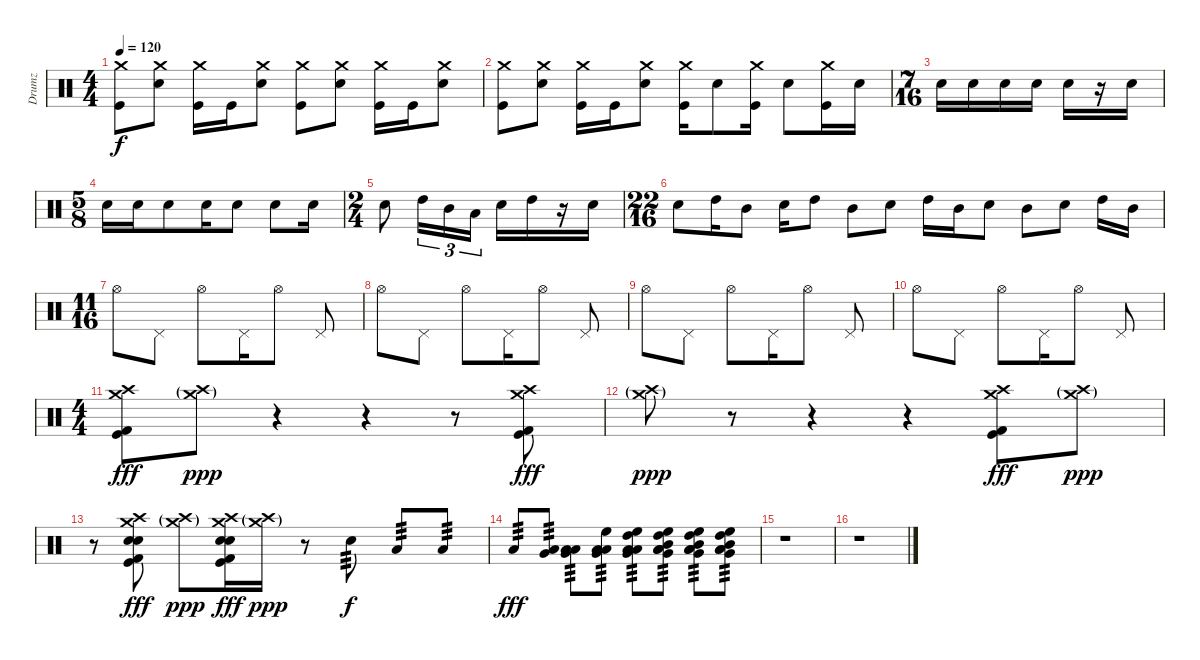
\track ("Drumz" "Drumz") {instrument percussion}
\staff {score}
\articulation defaults
\ts (4 4)
\tempo 120
\clef neutral
\ks c
("Crash medium (hit)" "Kick (hit)").8{dy f} ("Crash medium (hit)" "Electric Snare (hit)").8 ("Crash medium (hit)" "Kick (hit)").16 "Kick (hit)".16 ("Crash medium (hit)" "Electric Snare (hit)").8 ("Crash medium (hit)" "Kick (hit)").8 ("Crash medium (hit)" "Electric Snare (hit)").8 ("Crash medium (hit)" "Kick (hit)").16 "Kick (hit)".16 ("Crash medium (hit)" "Electric Snare (hit)").8 |
("Crash medium (hit)" "Kick (hit)").8 ("Crash medium (hit)" "Electric Snare (hit)").8 ("Crash medium (hit)" "Kick (hit)").16 "Kick (hit)".16 ("Crash medium (hit)" "Electric Snare (hit)").8 ("Crash medium (hit)" "Kick (hit)").16 "Electric Snare (hit)".8 ("Crash medium (hit)" "Kick (hit)").16 "Electric Snare (hit)".8 ("Crash medium (hit)" "Kick (hit)").16 "Electric Snare (hit)".16 |
\ts (7 16)
"Electric Snare (hit)".16 "Electric Snare (hit)".16 "Electric Snare (hit)".16 "Electric Snare (hit)".16 "Electric Snare (hit)".16 r.16 "Electric Snare (hit)".16 |
\ts (5 8)
"Electric Snare (hit)".16 "Electric Snare (hit)".16 "Electric Snare (hit)".8 "Electric Snare (hit)".16 "Electric Snare (hit)".8 "Electric Snare (hit)".8 "Electric Snare (hit)".16 |
\ts (2 4)
"Electric Snare (hit)".8 "High Tom (hit)".16{tu (3 2)} "Mid Tom (hit)".16{tu (3 2)} "Low Tom (hit)".16{tu (3 2)} "Electric Snare (hit)".16 "High Tom (hit)".16 r.16 "Electric Snare (hit)".16 |
\ts (22 16)
"Electric Snare (hit)".8 "High Tom (hit)".16 "Mid Tom (hit)".8 "Electric Snare (hit)".16 "High Tom (hit)".8 "Mid Tom (hit)".8 "Electric Snare (hit)".8 "High Tom (hit)".16 "Mid Tom (hit)".16 "Electric Snare (hit)".8 "Mid Tom (hit)".8 "Electric Snare (hit)".8 "High Tom (hit)".16 "Mid Tom (hit)".16 |
\ts (11 16)
"Hi-Hat (open)".8 "Pedal Hi-Hat (hit)".8 "Hi-Hat (open)".8 "Pedal Hi-Hat (hit)".16 "Hi-Hat (open)".8 "Pedal Hi-Hat (hit)".8 |
"Hi-Hat (open)".8 "Pedal Hi-Hat (hit)".8 "Hi-Hat (open)".8 "Pedal Hi-Hat (hit)".16 "Hi-Hat (open)".8 "Pedal Hi-Hat (hit)".8 |
"Hi-Hat (open)".8 "Pedal Hi-Hat (hit)".8 "Hi-Hat (open)".8 "Pedal Hi-Hat (hit)".16 "Hi-Hat (open)".8 "Pedal Hi-Hat (hit)".8 |
"Hi-Hat (open)".8 "Pedal Hi-Hat (hit)".8 "Hi-Hat (open)".8 "Pedal Hi-Hat (hit)".16 "Hi-Hat (open)".8 "Pedal Hi-Hat (hit)".8 |
\ts (4 4)
("Crash medium (hit)" "Crash high (hit)" "Kick (hit) 2" "Kick (hit)").8{dy fff} ("Crash medium (hit)"{g} "Crash high (hit)"{g}).8{dy ppp} r.4 r.4 r.8 ("Crash medium (hit)" "Crash high (hit)" "Kick (hit) 2" "Kick (hit)").8{dy fff} |
("Crash medium (hit)"{g} "Crash high (hit)"{g}).8{dy ppp} r.8 r.4 r.4 ("Crash medium (hit)" "Crash high (hit)" "Kick (hit) 2" "Kick (hit)").8{dy fff} ("Crash medium (hit)"{g} "Crash high (hit)"{g}).8{dy ppp} |
r.8 ("Crash medium (hit)" "Crash high (hit)" "Electric Snare (hit)" "Electric Snare (hit)" "Kick (hit) 2" "Kick (hit)").8{dy fff} ("Crash medium (hit)"{g} "Crash high (hit)"{g}).8{dy ppp} ("Crash medium (hit)" "Crash high (hit)" "Electric Snare (hit)" "Electric Snare (hit)" "Kick (hit) 2" "Kick (hit)").16{dy fff} ("Crash medium (hit)"{g} "Crash high (hit)"{g}).16{dy ppp} r.8 "Electric Snare (hit)".8{tp 3 dy f} "Low Tom (hit)".8{tp 3} "Low Tom (hit)".8{tp 3} |
"Low Tom (hit)".8{tp 3 dy fff} ("Very Low Tom (hit)" "Low Tom (hit)").8{tp 3} ("Low Floor Tom (hit)" "Very Low Tom (hit)" "Low Tom (hit)").8{tp 3} ("High Floor Tom (hit)" "Low Floor Tom (hit)" "Very Low Tom (hit)" "Low Tom (hit)").8{tp 3} ("High Floor Tom (hit)" "Low Floor Tom (hit)" "Very Low Tom (hit)" "Low Tom (hit)" "High Tom (hit)").8{tp 3} ("High Floor Tom (hit)" "Low Floor Tom (hit)" "Very Low Tom (hit)" "Low Tom (hit)" "High Tom (hit)" "Mid Tom (hit)").8{tp 3} ("High Floor Tom (hit)" "Low Floor Tom (hit)" "Very Low Tom (hit)" "Low Tom (hit)" "High Tom (hit)" "Mid Tom (hit)").8{tp 3} ("High Floor Tom (hit)" "Low Floor Tom (hit)" "Very Low Tom (hit)" "Low Tom (hit)" "High Tom (hit)" "Mid Tom (hit)").8{tp 3} |
r.1 |
r.1
